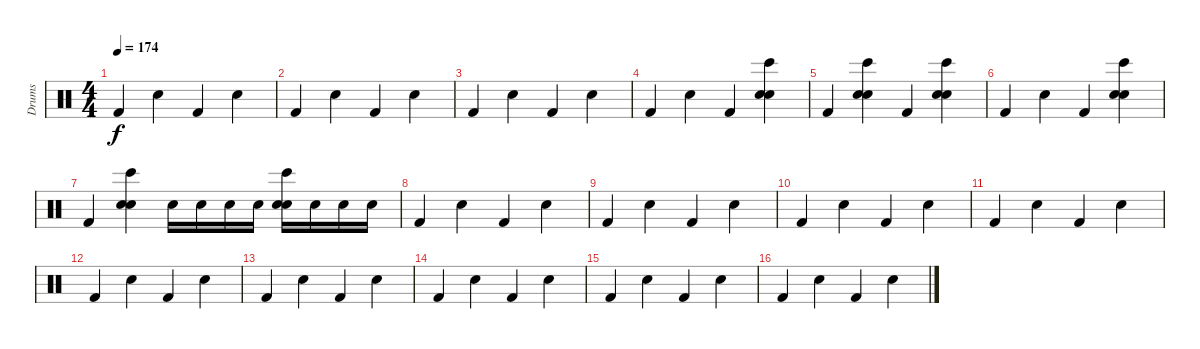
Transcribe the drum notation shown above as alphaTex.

\track ("Drums" "Drums") {instrument percussion}
\staff {score}
\articulation defaults
\ts (4 4)
\tempo 174
\clef neutral
\ks c "Kick (hit) 2".4{dy f} "Electric Snare (hit)".4 "Kick (hit) 2".4 "Electric Snare (hit)".4
|
"Kick (hit) 2".4 "Electric Snare (hit)".4 "Kick (hit) 2".4 "Electric Snare (hit)".4 |
"Kick (hit) 2".4 "Electric Snare (hit)".4 "Kick (hit) 2".4 "Electric Snare (hit)".4 |
"Kick (hit) 2".4 "Electric Snare (hit)".4 "Kick (hit) 2".4 ("Electric Snare (hit)" "Hand Clap (hit)" "Bongo High (hit)").4 |
"Kick (hit) 2".4 ("Electric Snare (hit)" "Hand Clap (hit)" "Bongo High (hit)").4 "Kick (hit) 2".4 ("Electric Snare (hit)" "Hand Clap (hit)" "Bongo High (hit)").4 |
"Kick (hit) 2".4 "Electric Snare (hit)".4 "Kick (hit) 2".4 ("Electric Snare (hit)" "Hand Clap (hit)" "Bongo High (hit)").4 |
"Kick (hit) 2".4 ("Electric Snare (hit)" "Hand Clap (hit)" "Bongo High (hit)").4 "Electric Snare (hit)".16 "Electric Snare (hit)".16 "Electric Snare (hit)".16 "Electric Snare (hit)".16 ("Electric Snare (hit)" "Hand Clap (hit)" "Bongo High (hit)").16 "Electric Snare (hit)".16 "Electric Snare (hit)".16 "Electric Snare (hit)".16 |
"Kick (hit) 2".4 "Electric Snare (hit)".4 "Kick (hit) 2".4 "Electric Snare (hit)".4 |
"Kick (hit) 2".4 "Electric Snare (hit)".4 "Kick (hit) 2".4 "Electric Snare (hit)".4 |
"Kick (hit) 2".4 "Electric Snare (hit)".4 "Kick (hit) 2".4 "Electric Snare (hit)".4 |
"Kick (hit) 2".4 "Electric Snare (hit)".4 "Kick (hit) 2".4 "Electric Snare (hit)".4 |
"Kick (hit) 2".4 "Electric Snare (hit)".4 "Kick (hit) 2".4 "Electric Snare (hit)".4 |
"Kick (hit) 2".4 "Electric Snare (hit)".4 "Kick (hit) 2".4 "Electric Snare (hit)".4 |
"Kick (hit) 2".4 "Electric Snare (hit)".4 "Kick (hit) 2".4 "Electric Snare (hit)".4 |
"Kick (hit) 2".4 "Electric Snare (hit)".4 "Kick (hit) 2".4 "Electric Snare (hit)".4 |
"Kick (hit) 2".4 "Electric Snare (hit)".4 "Kick (hit) 2".4 "Electric Snare (hit)".4
